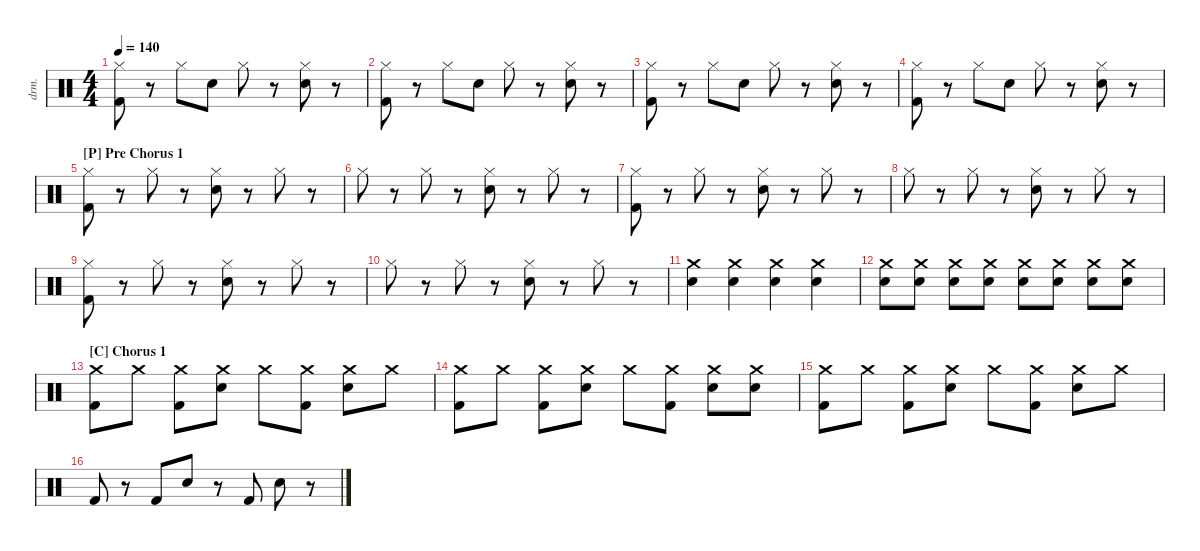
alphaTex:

\defaultSystemsLayout 4
\hideDynamics
\bracketExtendMode nobrackets
\otherSystemsTrackNameOrientation horizontal
\track ("Drumkit" "drm.") {instrument percussion}
\staff {score}
\articulation defaults
\ts (4 4)
\tempo 140
\clef neutral
\ks c
("Kick (hit) 2" "Hi-Hat (closed)").8{dy mf beam Down} r.8{beam Down} "Hi-Hat (closed)".8{beam Down} "Snare (hit) 2".8{beam Down} "Hi-Hat (closed)".8{beam Down} r.8{beam Down} ("Snare (hit) 2" "Hi-Hat (closed)").8{beam Down} r.8{beam Down} |
("Kick (hit) 2" "Hi-Hat (closed)").8{beam Down} r.8{beam Down} "Hi-Hat (closed)".8{beam Down} "Snare (hit) 2".8{beam Down} "Hi-Hat (closed)".8{beam Down} r.8{beam Down} ("Snare (hit) 2" "Hi-Hat (closed)").8{beam Down} r.8{beam Down} |
("Kick (hit) 2" "Hi-Hat (closed)").8{beam Down} r.8{beam Down} "Hi-Hat (closed)".8{beam Down} "Snare (hit) 2".8{beam Down} "Hi-Hat (closed)".8{beam Down} r.8{beam Down} ("Snare (hit) 2" "Hi-Hat (closed)").8{beam Down} r.8{beam Down} |
("Kick (hit) 2" "Hi-Hat (closed)").8{beam Down} r.8{beam Down} "Hi-Hat (closed)".8{beam Down} "Snare (hit) 2".8{beam Down} "Hi-Hat (closed)".8{beam Down} r.8{beam Down} ("Snare (hit) 2" "Hi-Hat (closed)").8{beam Down} r.8{beam Down} |
\section ("P" "Pre Chorus 1")
("Kick (hit) 2" "Hi-Hat (closed)").8{beam Down} r.8{beam Down} "Hi-Hat (closed)".8{beam Down} r.8{beam Down} ("Hi-Hat (closed)" "Snare (hit) 2").8{beam Down} r.8{beam Down} "Hi-Hat (closed)".8{beam Down} r.8{beam Down} |
"Hi-Hat (closed)".8{beam Down} r.8{beam Down} "Hi-Hat (closed)".8{beam Down} r.8{beam Down} ("Hi-Hat (closed)" "Snare (hit) 2").8{beam Down} r.8{beam Down} "Hi-Hat (closed)".8{beam Down} r.8{beam Down} |
("Kick (hit) 2" "Hi-Hat (closed)").8{beam Down} r.8{beam Down} "Hi-Hat (closed)".8{beam Down} r.8{beam Down} ("Hi-Hat (closed)" "Snare (hit) 2").8{beam Down} r.8{beam Down} "Hi-Hat (closed)".8{beam Down} r.8{beam Down} |
"Hi-Hat (closed)".8{beam Down} r.8{beam Down} "Hi-Hat (closed)".8{beam Down} r.8{beam Down} ("Hi-Hat (closed)" "Snare (hit) 2").8{beam Down} r.8{beam Down} "Hi-Hat (closed)".8{beam Down} r.8{beam Down} |
("Kick (hit) 2" "Hi-Hat (closed)").8{beam Down} r.8{beam Down} "Hi-Hat (closed)".8{beam Down} r.8{beam Down} ("Hi-Hat (closed)" "Snare (hit) 2").8{beam Down} r.8{beam Down} "Hi-Hat (closed)".8{beam Down} r.8{beam Down} |
"Hi-Hat (closed)".8{beam Down} r.8{beam Down} "Hi-Hat (closed)".8{beam Down} r.8{beam Down} ("Hi-Hat (closed)" "Snare (hit) 2").8{beam Down} r.8{beam Down} "Hi-Hat (closed)".8{beam Down} r.8{beam Down} |
("Snare (hit) 2" "Crash medium (hit)").4{beam Down} ("Snare (hit) 2" "Crash medium (hit)").4{beam Down} ("Snare (hit) 2" "Crash medium (hit)").4{beam Down} ("Snare (hit) 2" "Crash medium (hit)").4{beam Down} |
("Snare (hit) 2" "Crash medium (hit)").8{beam Down} ("Snare (hit) 2" "Crash medium (hit)").8{beam Down} ("Snare (hit) 2" "Crash medium (hit)").8{beam Down} ("Snare (hit) 2" "Crash medium (hit)").8{beam Down} ("Snare (hit) 2" "Crash medium (hit)").8{beam Down} ("Snare (hit) 2" "Crash medium (hit)").8{beam Down} ("Snare (hit) 2" "Crash medium (hit)").8{beam Down} ("Snare (hit) 2" "Crash medium (hit)").8{beam Down} |
\section ("C" "Chorus 1")
("Crash medium (hit)" "Kick (hit) 2").8{beam Down} "Crash medium (hit)".8{beam Down} ("Crash medium (hit)" "Kick (hit) 2").8{beam Down} ("Snare (hit) 2" "Crash medium (hit)").8{beam Down} "Crash medium (hit)".8{beam Down} ("Crash medium (hit)" "Kick (hit) 2").8{beam Down} ("Crash medium (hit)" "Snare (hit) 2").8{beam Down} "Crash medium (hit)".8{beam Down} |
("Crash medium (hit)" "Kick (hit) 2").8{beam Down} "Crash medium (hit)".8{beam Down} ("Crash medium (hit)" "Kick (hit) 2").8{beam Down} ("Snare (hit) 2" "Crash medium (hit)").8{beam Down} "Crash medium (hit)".8{beam Down} ("Crash medium (hit)" "Kick (hit) 2").8{beam Down} ("Crash medium (hit)" "Snare (hit) 2").8{beam Down} ("Crash medium (hit)" "Snare (hit) 2").8{beam Down} |
("Crash medium (hit)" "Kick (hit) 2").8{beam Down} "Crash medium (hit)".8{beam Down} ("Crash medium (hit)" "Kick (hit) 2").8{beam Down} ("Snare (hit) 2" "Crash medium (hit)").8{beam Down} "Crash medium (hit)".8{beam Down} ("Crash medium (hit)" "Kick (hit) 2").8{beam Down} ("Crash medium (hit)" "Snare (hit) 2").8{beam Down} "Crash medium (hit)".8{beam Down} |
"Kick (hit) 2".8{beam Up} r.8{beam Up} "Kick (hit) 2".8{beam Up} "Snare (hit) 2".8{beam Up} r.8{beam Up} "Kick (hit) 2".8{beam Up} "Snare (hit) 2".8{beam Down} r.8{beam Down}
